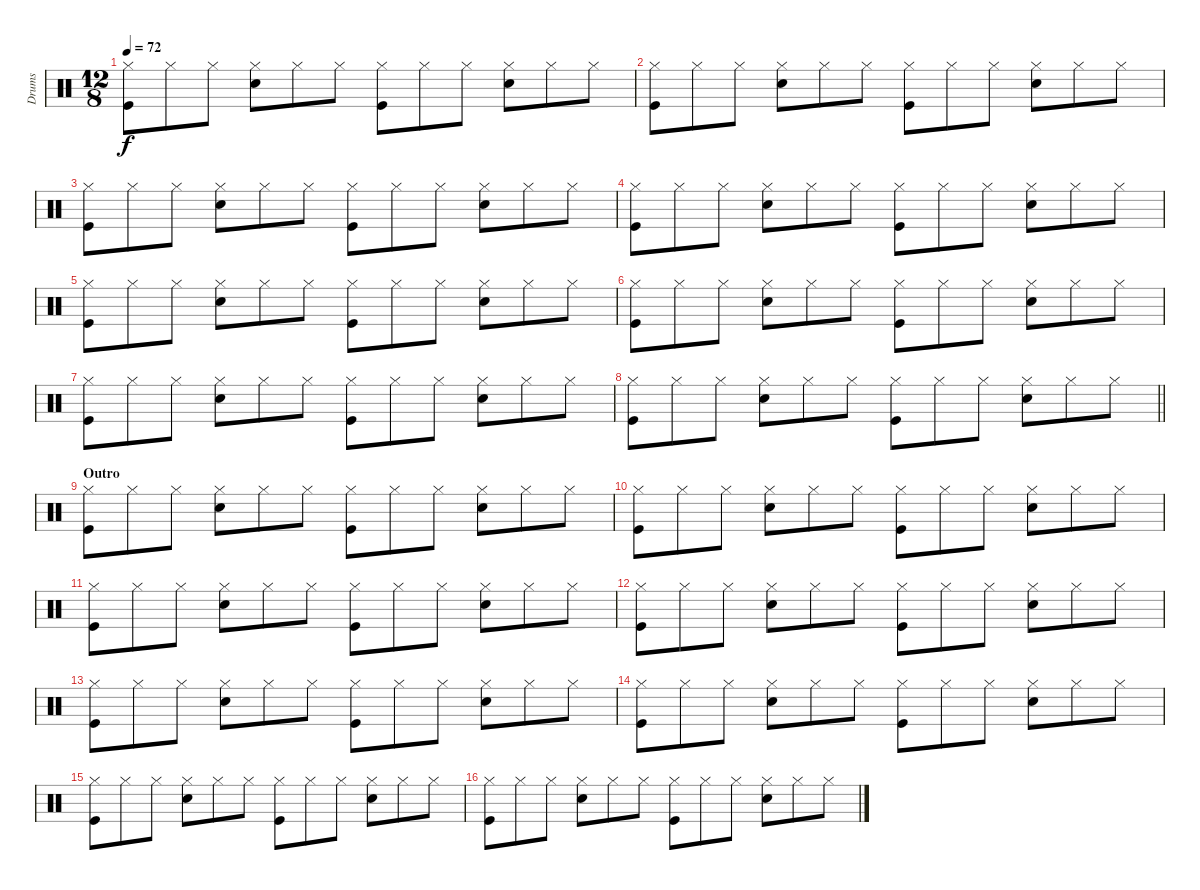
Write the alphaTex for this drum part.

\track ("Drums" "Drums") {instrument percussion}
\staff {score}
\articulation defaults
\ts (12 8)
\tempo 72
\clef neutral
\ks c
("Hi-Hat (closed)" "Kick (hit)").8{dy f} "Hi-Hat (closed)".8 "Hi-Hat (closed)".8 ("Hi-Hat (closed)" "Snare (hit) 2").8 "Hi-Hat (closed)".8 "Hi-Hat (closed)".8 ("Hi-Hat (closed)" "Kick (hit)").8 "Hi-Hat (closed)".8 "Hi-Hat (closed)".8 ("Hi-Hat (closed)" "Snare (hit) 2").8 "Hi-Hat (closed)".8 "Hi-Hat (closed)".8 |
("Hi-Hat (closed)" "Kick (hit)").8 "Hi-Hat (closed)".8 "Hi-Hat (closed)".8 ("Hi-Hat (closed)" "Snare (hit) 2").8 "Hi-Hat (closed)".8 "Hi-Hat (closed)".8 ("Hi-Hat (closed)" "Kick (hit)").8 "Hi-Hat (closed)".8 "Hi-Hat (closed)".8 ("Hi-Hat (closed)" "Snare (hit) 2").8 "Hi-Hat (closed)".8 "Hi-Hat (closed)".8 |
("Hi-Hat (closed)" "Kick (hit)").8 "Hi-Hat (closed)".8 "Hi-Hat (closed)".8 ("Hi-Hat (closed)" "Snare (hit) 2").8 "Hi-Hat (closed)".8 "Hi-Hat (closed)".8 ("Hi-Hat (closed)" "Kick (hit)").8 "Hi-Hat (closed)".8 "Hi-Hat (closed)".8 ("Hi-Hat (closed)" "Snare (hit) 2").8 "Hi-Hat (closed)".8 "Hi-Hat (closed)".8 |
("Hi-Hat (closed)" "Kick (hit)").8 "Hi-Hat (closed)".8 "Hi-Hat (closed)".8 ("Hi-Hat (closed)" "Snare (hit) 2").8 "Hi-Hat (closed)".8 "Hi-Hat (closed)".8 ("Hi-Hat (closed)" "Kick (hit)").8 "Hi-Hat (closed)".8 "Hi-Hat (closed)".8 ("Hi-Hat (closed)" "Snare (hit) 2").8 "Hi-Hat (closed)".8 "Hi-Hat (closed)".8 |
("Hi-Hat (closed)" "Kick (hit)").8 "Hi-Hat (closed)".8 "Hi-Hat (closed)".8 ("Hi-Hat (closed)" "Snare (hit) 2").8 "Hi-Hat (closed)".8 "Hi-Hat (closed)".8 ("Hi-Hat (closed)" "Kick (hit)").8 "Hi-Hat (closed)".8 "Hi-Hat (closed)".8 ("Hi-Hat (closed)" "Snare (hit) 2").8 "Hi-Hat (closed)".8 "Hi-Hat (closed)".8 |
("Hi-Hat (closed)" "Kick (hit)").8 "Hi-Hat (closed)".8 "Hi-Hat (closed)".8 ("Hi-Hat (closed)" "Snare (hit) 2").8 "Hi-Hat (closed)".8 "Hi-Hat (closed)".8 ("Hi-Hat (closed)" "Kick (hit)").8 "Hi-Hat (closed)".8 "Hi-Hat (closed)".8 ("Hi-Hat (closed)" "Snare (hit) 2").8 "Hi-Hat (closed)".8 "Hi-Hat (closed)".8 |
("Hi-Hat (closed)" "Kick (hit)").8 "Hi-Hat (closed)".8 "Hi-Hat (closed)".8 ("Hi-Hat (closed)" "Snare (hit) 2").8 "Hi-Hat (closed)".8 "Hi-Hat (closed)".8 ("Hi-Hat (closed)" "Kick (hit)").8 "Hi-Hat (closed)".8 "Hi-Hat (closed)".8 ("Hi-Hat (closed)" "Snare (hit) 2").8 "Hi-Hat (closed)".8 "Hi-Hat (closed)".8 |
\barLineRight lightlight
("Hi-Hat (closed)" "Kick (hit)").8 "Hi-Hat (closed)".8 "Hi-Hat (closed)".8 ("Hi-Hat (closed)" "Snare (hit) 2").8 "Hi-Hat (closed)".8 "Hi-Hat (closed)".8 ("Hi-Hat (closed)" "Kick (hit)").8 "Hi-Hat (closed)".8 "Hi-Hat (closed)".8 ("Hi-Hat (closed)" "Snare (hit) 2").8 "Hi-Hat (closed)".8 "Hi-Hat (closed)".8 |
\section ("" "Outro")
("Hi-Hat (closed)" "Kick (hit)").8 "Hi-Hat (closed)".8 "Hi-Hat (closed)".8 ("Hi-Hat (closed)" "Snare (hit) 2").8 "Hi-Hat (closed)".8 "Hi-Hat (closed)".8 ("Hi-Hat (closed)" "Kick (hit)").8 "Hi-Hat (closed)".8 "Hi-Hat (closed)".8 ("Hi-Hat (closed)" "Snare (hit) 2").8 "Hi-Hat (closed)".8 "Hi-Hat (closed)".8 |
("Hi-Hat (closed)" "Kick (hit)").8 "Hi-Hat (closed)".8 "Hi-Hat (closed)".8 ("Hi-Hat (closed)" "Snare (hit) 2").8 "Hi-Hat (closed)".8 "Hi-Hat (closed)".8 ("Hi-Hat (closed)" "Kick (hit)").8 "Hi-Hat (closed)".8 "Hi-Hat (closed)".8 ("Hi-Hat (closed)" "Snare (hit) 2").8 "Hi-Hat (closed)".8 "Hi-Hat (closed)".8 |
("Hi-Hat (closed)" "Kick (hit)").8 "Hi-Hat (closed)".8 "Hi-Hat (closed)".8 ("Hi-Hat (closed)" "Snare (hit) 2").8 "Hi-Hat (closed)".8 "Hi-Hat (closed)".8 ("Hi-Hat (closed)" "Kick (hit)").8 "Hi-Hat (closed)".8 "Hi-Hat (closed)".8 ("Hi-Hat (closed)" "Snare (hit) 2").8 "Hi-Hat (closed)".8 "Hi-Hat (closed)".8 |
("Hi-Hat (closed)" "Kick (hit)").8 "Hi-Hat (closed)".8 "Hi-Hat (closed)".8 ("Hi-Hat (closed)" "Snare (hit) 2").8 "Hi-Hat (closed)".8 "Hi-Hat (closed)".8 ("Hi-Hat (closed)" "Kick (hit)").8 "Hi-Hat (closed)".8 "Hi-Hat (closed)".8 ("Hi-Hat (closed)" "Snare (hit) 2").8 "Hi-Hat (closed)".8 "Hi-Hat (closed)".8 |
("Hi-Hat (closed)" "Kick (hit)").8 "Hi-Hat (closed)".8 "Hi-Hat (closed)".8 ("Hi-Hat (closed)" "Snare (hit) 2").8 "Hi-Hat (closed)".8 "Hi-Hat (closed)".8 ("Hi-Hat (closed)" "Kick (hit)").8 "Hi-Hat (closed)".8 "Hi-Hat (closed)".8 ("Hi-Hat (closed)" "Snare (hit) 2").8 "Hi-Hat (closed)".8 "Hi-Hat (closed)".8 |
("Hi-Hat (closed)" "Kick (hit)").8 "Hi-Hat (closed)".8 "Hi-Hat (closed)".8 ("Hi-Hat (closed)" "Snare (hit) 2").8 "Hi-Hat (closed)".8 "Hi-Hat (closed)".8 ("Hi-Hat (closed)" "Kick (hit)").8 "Hi-Hat (closed)".8 "Hi-Hat (closed)".8 ("Hi-Hat (closed)" "Snare (hit) 2").8 "Hi-Hat (closed)".8 "Hi-Hat (closed)".8 |
("Hi-Hat (closed)" "Kick (hit)").8 "Hi-Hat (closed)".8 "Hi-Hat (closed)".8 ("Hi-Hat (closed)" "Snare (hit) 2").8 "Hi-Hat (closed)".8 "Hi-Hat (closed)".8 ("Hi-Hat (closed)" "Kick (hit)").8 "Hi-Hat (closed)".8 "Hi-Hat (closed)".8 ("Hi-Hat (closed)" "Snare (hit) 2").8 "Hi-Hat (closed)".8 "Hi-Hat (closed)".8 |
("Hi-Hat (closed)" "Kick (hit)").8 "Hi-Hat (closed)".8 "Hi-Hat (closed)".8 ("Hi-Hat (closed)" "Snare (hit) 2").8 "Hi-Hat (closed)".8 "Hi-Hat (closed)".8 ("Hi-Hat (closed)" "Kick (hit)").8 "Hi-Hat (closed)".8 "Hi-Hat (closed)".8 ("Hi-Hat (closed)" "Snare (hit) 2").8 "Hi-Hat (closed)".8 "Hi-Hat (closed)".8
